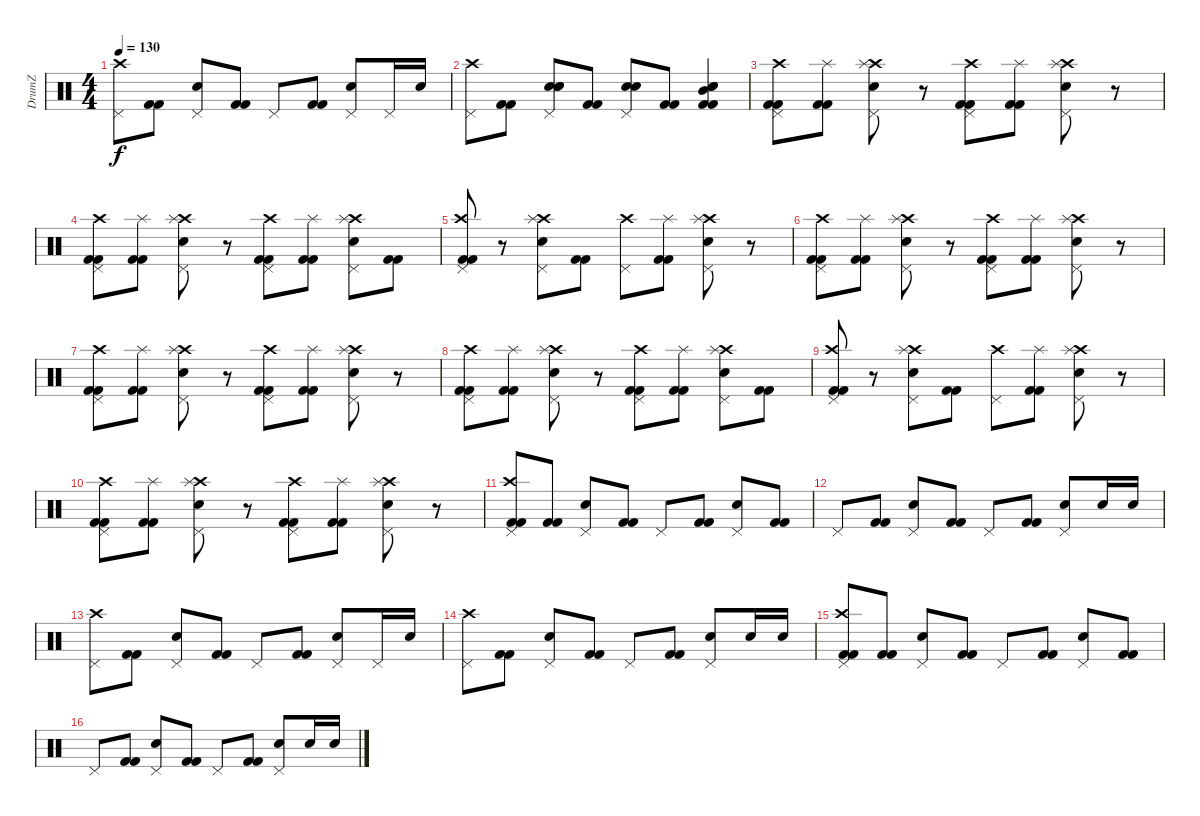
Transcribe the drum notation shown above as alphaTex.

\track ("DrumZ" "DrumZ") {instrument percussion}
\staff {score}
\articulation defaults
\ts (4 4)
\tempo 130
\clef neutral
\ks c
("Pedal Hi-Hat (hit)" "Crash high (hit)").8{dy f} ("Kick (hit) 2" "Kick (hit) 2").8 ("Pedal Hi-Hat (hit)" "Snare (hit) 2").8 ("Kick (hit) 2" "Kick (hit) 2").8 "Pedal Hi-Hat (hit)".8 ("Kick (hit) 2" "Kick (hit) 2").8 ("Pedal Hi-Hat (hit)" "Snare (hit) 2").8 "Pedal Hi-Hat (hit)".16 "Snare (hit) 2".16 |
("Pedal Hi-Hat (hit)" "Crash high (hit)").8 ("Kick (hit) 2" "Kick (hit) 2").8 ("Pedal Hi-Hat (hit)" "Electric Snare (hit)" "Snare (hit) 2" "Snare (hit) 2").8 ("Kick (hit) 2" "Kick (hit) 2").8 ("Pedal Hi-Hat (hit)" "Electric Snare (hit)" "Snare (hit) 2").8 ("Kick (hit) 2" "Kick (hit) 2").8 ("Mid Tom (hit)" "Snare (hit) 2" "Kick (hit) 2" "Kick (hit) 2" "Electric Snare (hit)").4 |
("Pedal Hi-Hat (hit)" "Crash high (hit)" "Kick (hit) 2" "Kick (hit) 2").8 ("Splash (hit)" "Kick (hit) 2" "Kick (hit) 2").8 ("Pedal Hi-Hat (hit)" "Crash high (hit)" "Splash (hit)" "Snare (hit) 2").8 r.8 ("Pedal Hi-Hat (hit)" "Crash high (hit)" "Kick (hit) 2" "Kick (hit) 2").8 ("Splash (hit)" "Kick (hit) 2" "Kick (hit) 2").8 ("Pedal Hi-Hat (hit)" "Crash high (hit)" "Splash (hit)" "Snare (hit) 2").8 r.8 |
("Pedal Hi-Hat (hit)" "Crash high (hit)" "Kick (hit) 2" "Kick (hit) 2").8 ("Splash (hit)" "Kick (hit) 2" "Kick (hit) 2").8 ("Pedal Hi-Hat (hit)" "Crash high (hit)" "Splash (hit)" "Snare (hit) 2").8 r.8 ("Pedal Hi-Hat (hit)" "Crash high (hit)" "Kick (hit) 2" "Kick (hit) 2").8 ("Splash (hit)" "Kick (hit) 2" "Kick (hit) 2").8 ("Pedal Hi-Hat (hit)" "Crash high (hit)" "Splash (hit)" "Snare (hit) 2").8 ("Kick (hit) 2" "Kick (hit) 2").8 |
("Pedal Hi-Hat (hit)" "Crash high (hit)" "Kick (hit) 2" "Kick (hit) 2").8 r.8 ("Pedal Hi-Hat (hit)" "Crash high (hit)" "Splash (hit)" "Snare (hit) 2").8 ("Kick (hit) 2" "Kick (hit) 2").8 ("Pedal Hi-Hat (hit)" "Crash high (hit)").8 ("Splash (hit)" "Kick (hit) 2" "Kick (hit) 2").8 ("Pedal Hi-Hat (hit)" "Crash high (hit)" "Splash (hit)" "Snare (hit) 2").8 r.8 |
("Pedal Hi-Hat (hit)" "Crash high (hit)" "Kick (hit) 2" "Kick (hit) 2").8 ("Splash (hit)" "Kick (hit) 2" "Kick (hit) 2").8 ("Pedal Hi-Hat (hit)" "Crash high (hit)" "Splash (hit)" "Snare (hit) 2").8 r.8 ("Pedal Hi-Hat (hit)" "Crash high (hit)" "Kick (hit) 2" "Kick (hit) 2").8 ("Splash (hit)" "Kick (hit) 2" "Kick (hit) 2").8 ("Pedal Hi-Hat (hit)" "Crash high (hit)" "Splash (hit)" "Snare (hit) 2").8 r.8 |
("Pedal Hi-Hat (hit)" "Crash high (hit)" "Kick (hit) 2" "Kick (hit) 2").8 ("Splash (hit)" "Kick (hit) 2" "Kick (hit) 2").8 ("Pedal Hi-Hat (hit)" "Crash high (hit)" "Splash (hit)" "Snare (hit) 2").8 r.8 ("Pedal Hi-Hat (hit)" "Crash high (hit)" "Kick (hit) 2" "Kick (hit) 2").8 ("Splash (hit)" "Kick (hit) 2" "Kick (hit) 2").8 ("Pedal Hi-Hat (hit)" "Crash high (hit)" "Splash (hit)" "Snare (hit) 2").8 r.8 |
("Pedal Hi-Hat (hit)" "Crash high (hit)" "Kick (hit) 2" "Kick (hit) 2").8 ("Splash (hit)" "Kick (hit) 2" "Kick (hit) 2").8 ("Pedal Hi-Hat (hit)" "Crash high (hit)" "Splash (hit)" "Snare (hit) 2").8 r.8 ("Pedal Hi-Hat (hit)" "Crash high (hit)" "Kick (hit) 2" "Kick (hit) 2").8 ("Splash (hit)" "Kick (hit) 2" "Kick (hit) 2").8 ("Pedal Hi-Hat (hit)" "Crash high (hit)" "Splash (hit)" "Snare (hit) 2").8 ("Kick (hit) 2" "Kick (hit) 2").8 |
("Pedal Hi-Hat (hit)" "Crash high (hit)" "Kick (hit) 2" "Kick (hit) 2").8 r.8 ("Pedal Hi-Hat (hit)" "Crash high (hit)" "Splash (hit)" "Snare (hit) 2").8 ("Kick (hit) 2" "Kick (hit) 2").8 ("Pedal Hi-Hat (hit)" "Crash high (hit)").8 ("Splash (hit)" "Kick (hit) 2" "Kick (hit) 2").8 ("Pedal Hi-Hat (hit)" "Crash high (hit)" "Splash (hit)" "Snare (hit) 2").8 r.8 |
("Pedal Hi-Hat (hit)" "Crash high (hit)" "Kick (hit) 2" "Kick (hit) 2").8 ("Splash (hit)" "Kick (hit) 2" "Kick (hit) 2").8 ("Pedal Hi-Hat (hit)" "Crash high (hit)" "Splash (hit)" "Snare (hit) 2").8 r.8 ("Pedal Hi-Hat (hit)" "Crash high (hit)" "Kick (hit) 2" "Kick (hit) 2").8 ("Splash (hit)" "Kick (hit) 2" "Kick (hit) 2").8 ("Pedal Hi-Hat (hit)" "Crash high (hit)" "Splash (hit)" "Snare (hit) 2").8 r.8 |
("Pedal Hi-Hat (hit)" "Crash high (hit)" "Kick (hit) 2" "Kick (hit) 2").8 ("Kick (hit) 2" "Kick (hit) 2").8 ("Pedal Hi-Hat (hit)" "Snare (hit) 2").8 ("Kick (hit) 2" "Kick (hit) 2").8 "Pedal Hi-Hat (hit)".8 ("Kick (hit) 2" "Kick (hit) 2").8 ("Pedal Hi-Hat (hit)" "Snare (hit) 2").8 ("Kick (hit) 2" "Kick (hit) 2").8 |
"Pedal Hi-Hat (hit)".8 ("Kick (hit) 2" "Kick (hit) 2").8 ("Pedal Hi-Hat (hit)" "Snare (hit) 2").8 ("Kick (hit) 2" "Kick (hit) 2").8 "Pedal Hi-Hat (hit)".8 ("Kick (hit) 2" "Kick (hit) 2").8 ("Pedal Hi-Hat (hit)" "Snare (hit) 2").8 "Snare (hit) 2".16 "Snare (hit) 2".16 |
("Pedal Hi-Hat (hit)" "Crash high (hit)").8 ("Kick (hit) 2" "Kick (hit) 2").8 ("Pedal Hi-Hat (hit)" "Snare (hit) 2").8 ("Kick (hit) 2" "Kick (hit) 2").8 "Pedal Hi-Hat (hit)".8 ("Kick (hit) 2" "Kick (hit) 2").8 ("Pedal Hi-Hat (hit)" "Snare (hit) 2").8 "Pedal Hi-Hat (hit)".16 "Snare (hit) 2".16 |
("Pedal Hi-Hat (hit)" "Crash high (hit)").8 ("Kick (hit) 2" "Kick (hit) 2").8 ("Pedal Hi-Hat (hit)" "Snare (hit) 2").8 ("Kick (hit) 2" "Kick (hit) 2").8 "Pedal Hi-Hat (hit)".8 ("Kick (hit) 2" "Kick (hit) 2").8 ("Pedal Hi-Hat (hit)" "Snare (hit) 2").8 "Snare (hit) 2".16 "Snare (hit) 2".16 |
("Pedal Hi-Hat (hit)" "Crash high (hit)" "Kick (hit) 2" "Kick (hit) 2").8 ("Kick (hit) 2" "Kick (hit) 2").8 ("Pedal Hi-Hat (hit)" "Snare (hit) 2").8 ("Kick (hit) 2" "Kick (hit) 2").8 "Pedal Hi-Hat (hit)".8 ("Kick (hit) 2" "Kick (hit) 2").8 ("Pedal Hi-Hat (hit)" "Snare (hit) 2").8 ("Kick (hit) 2" "Kick (hit) 2").8 |
"Pedal Hi-Hat (hit)".8 ("Kick (hit) 2" "Kick (hit) 2").8 ("Pedal Hi-Hat (hit)" "Snare (hit) 2").8 ("Kick (hit) 2" "Kick (hit) 2").8 "Pedal Hi-Hat (hit)".8 ("Kick (hit) 2" "Kick (hit) 2").8 ("Pedal Hi-Hat (hit)" "Snare (hit) 2").8 "Snare (hit) 2".16 "Snare (hit) 2".16
